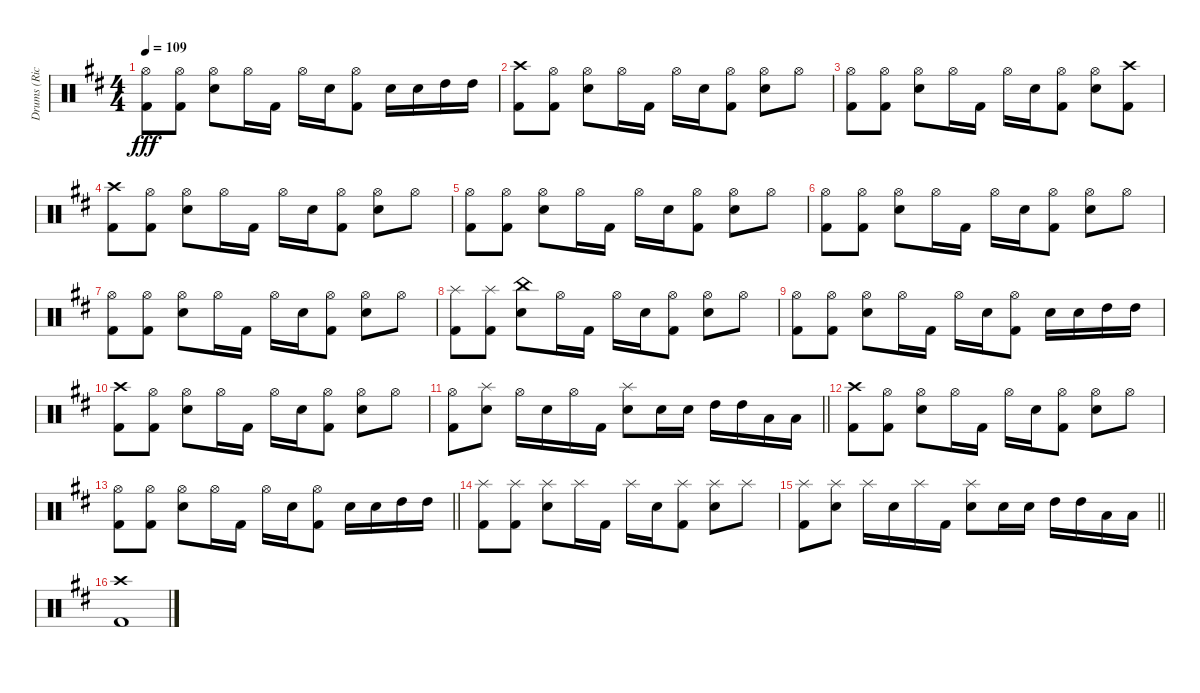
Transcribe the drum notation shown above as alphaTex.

\track ("Drums (Rick McMurray)" "Drums (Ric") {instrument percussion}
\staff {score}
\articulation defaults
\ts (4 4)
\tempo 109
\clef neutral
\ks d
("Hi-Hat (open)" "Kick (hit) 2").8{dy fff} ("Hi-Hat (open)" "Kick (hit) 2").8 ("Hi-Hat (open)" "Snare (hit) 2").8 "Hi-Hat (open)".16 "Kick (hit) 2".16 "Hi-Hat (open)".16 "Snare (hit) 2".16 ("Hi-Hat (open)" "Kick (hit) 2").8 "Snare (hit) 2".16 "Snare (hit) 2".16 "High Tom (hit)".16 "High Tom (hit)".16 |
("Crash high (hit)" "Kick (hit) 2").8 ("Hi-Hat (open)" "Kick (hit) 2").8 ("Hi-Hat (open)" "Snare (hit) 2").8 "Hi-Hat (open)".16 "Kick (hit) 2".16 "Hi-Hat (open)".16 "Snare (hit) 2".16 ("Hi-Hat (open)" "Kick (hit) 2").8 ("Hi-Hat (open)" "Snare (hit) 2").8 "Hi-Hat (open)".8 |
("Hi-Hat (open)" "Kick (hit) 2").8 ("Hi-Hat (open)" "Kick (hit) 2").8 ("Hi-Hat (open)" "Snare (hit) 2").8 "Hi-Hat (open)".16 "Kick (hit) 2".16 "Hi-Hat (open)".16 "Snare (hit) 2".16 ("Hi-Hat (open)" "Kick (hit) 2").8 ("Hi-Hat (open)" "Snare (hit) 2").8 ("Crash high (hit)" "Kick (hit) 2").8 |
("Crash high (hit)" "Kick (hit) 2").8 ("Hi-Hat (open)" "Kick (hit) 2").8 ("Hi-Hat (open)" "Snare (hit) 2").8 "Hi-Hat (open)".16 "Kick (hit) 2".16 "Hi-Hat (open)".16 "Snare (hit) 2".16 ("Hi-Hat (open)" "Kick (hit) 2").8 ("Hi-Hat (open)" "Snare (hit) 2").8 "Hi-Hat (open)".8 |
("Hi-Hat (open)" "Kick (hit) 2").8 ("Hi-Hat (open)" "Kick (hit) 2").8 ("Hi-Hat (open)" "Snare (hit) 2").8 "Hi-Hat (open)".16 "Kick (hit) 2".16 "Hi-Hat (open)".16 "Snare (hit) 2".16 ("Hi-Hat (open)" "Kick (hit) 2").8 ("Hi-Hat (open)" "Snare (hit) 2").8 "Hi-Hat (open)".8 |
("Hi-Hat (open)" "Kick (hit) 2").8 ("Hi-Hat (open)" "Kick (hit) 2").8 ("Hi-Hat (open)" "Snare (hit) 2").8 "Hi-Hat (open)".16 "Kick (hit) 2".16 "Hi-Hat (open)".16 "Snare (hit) 2".16 ("Hi-Hat (open)" "Kick (hit) 2").8 ("Hi-Hat (open)" "Snare (hit) 2").8 "Hi-Hat (open)".8 |
("Hi-Hat (open)" "Kick (hit) 2").8 ("Hi-Hat (open)" "Kick (hit) 2").8 ("Hi-Hat (open)" "Snare (hit) 2").8 "Hi-Hat (open)".16 "Kick (hit) 2".16 "Hi-Hat (open)".16 "Snare (hit) 2".16 ("Hi-Hat (open)" "Kick (hit) 2").8 ("Hi-Hat (open)" "Snare (hit) 2").8 "Hi-Hat (open)".8 |
("Splash (hit)" "Kick (hit) 2").8 ("Splash (hit)" "Kick (hit) 2").8 ("China (hit)" "Snare (hit) 2").8 "Hi-Hat (open)".16 "Kick (hit) 2".16 "Hi-Hat (open)".16 "Snare (hit) 2".16 ("Hi-Hat (open)" "Kick (hit) 2").8 ("Hi-Hat (open)" "Snare (hit) 2").8 "Hi-Hat (open)".8 |
("Hi-Hat (open)" "Kick (hit) 2").8 ("Hi-Hat (open)" "Kick (hit) 2").8 ("Hi-Hat (open)" "Snare (hit) 2").8 "Hi-Hat (open)".16 "Kick (hit) 2".16 "Hi-Hat (open)".16 "Snare (hit) 2".16 ("Hi-Hat (open)" "Kick (hit) 2").8 "Snare (hit) 2".16 "Snare (hit) 2".16 "High Tom (hit)".16 "High Tom (hit)".16 |
("Crash high (hit)" "Kick (hit) 2").8 ("Hi-Hat (open)" "Kick (hit) 2").8 ("Hi-Hat (open)" "Snare (hit) 2").8 "Hi-Hat (open)".16 "Kick (hit) 2".16 "Hi-Hat (open)".16 "Snare (hit) 2".16 ("Hi-Hat (open)" "Kick (hit) 2").8 ("Hi-Hat (open)" "Snare (hit) 2").8 "Hi-Hat (open)".8 |
\barLineRight lightlight
("Hi-Hat (open)" "Kick (hit) 2").8 ("Splash (hit)" "Snare (hit) 2").8 "Hi-Hat (open)".16 "Snare (hit) 2".16 "Hi-Hat (open)".16 "Kick (hit) 2".16 ("Splash (hit)" "Snare (hit) 2").8 "Snare (hit) 2".16 "Snare (hit) 2".16 "High Tom (hit)".16 "High Tom (hit)".16 "Low Tom (hit)".16 "Low Tom (hit)".16 |
("Crash high (hit)" "Kick (hit) 2").8 ("Hi-Hat (open)" "Kick (hit) 2").8 ("Hi-Hat (open)" "Snare (hit) 2").8 "Hi-Hat (open)".16 "Kick (hit) 2".16 "Hi-Hat (open)".16 "Snare (hit) 2".16 ("Hi-Hat (open)" "Kick (hit) 2").8 ("Hi-Hat (open)" "Snare (hit) 2").8 "Hi-Hat (open)".8 |
\barLineRight lightlight
("Hi-Hat (open)" "Kick (hit) 2").8 ("Hi-Hat (open)" "Kick (hit) 2").8 ("Hi-Hat (open)" "Snare (hit) 2").8 "Hi-Hat (open)".16 "Kick (hit) 2".16 "Hi-Hat (open)".16 "Snare (hit) 2".16 ("Hi-Hat (open)" "Kick (hit) 2").8 "Snare (hit) 2".16 "Snare (hit) 2".16 "High Tom (hit)".16 "High Tom (hit)".16 |
("Splash (hit)" "Kick (hit) 2").8 ("Splash (hit)" "Kick (hit) 2").8 ("Splash (hit)" "Snare (hit) 2").8 "Splash (hit)".16 "Kick (hit) 2".16 "Splash (hit)".16 "Snare (hit) 2".16 ("Splash (hit)" "Kick (hit) 2").8 ("Splash (hit)" "Snare (hit) 2").8 "Splash (hit)".8 |
\barLineRight lightlight
("Splash (hit)" "Kick (hit) 2").8 ("Splash (hit)" "Snare (hit) 2").8 "Splash (hit)".16 "Snare (hit) 2".16 "Splash (hit)".16 "Kick (hit) 2".16 ("Splash (hit)" "Snare (hit) 2").8 "Snare (hit) 2".16 "Snare (hit) 2".16 "High Tom (hit)".16 "High Tom (hit)".16 "Low Tom (hit)".16 "Low Tom (hit)".16 |
("Crash high (hit)" "Kick (hit) 2").1
